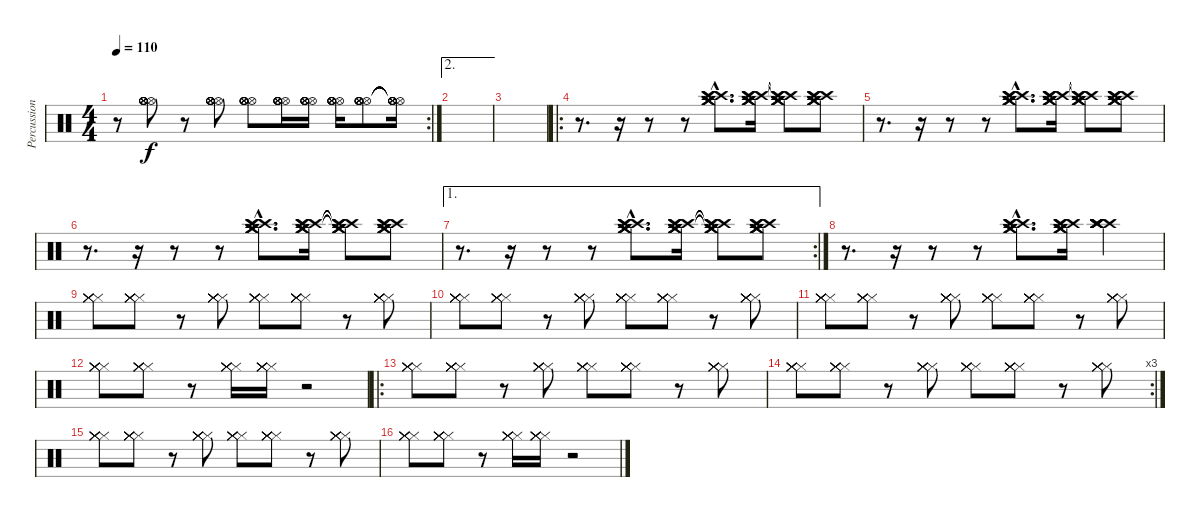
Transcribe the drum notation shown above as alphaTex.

\track ("Percussion 2" "Percussion") {instrument percussion}
\staff {score}
\articulation defaults
\rc 2
\ts (4 4)
\tempo 110
\clef neutral
\ks c
r.8{dy p} ("Hi-Hat (open)" "Hi-Hat (open)" "Hi-Hat (open)" "Hi-Hat (open)" "Hi-Hat (open)" "Hi-Hat (open)").8{dy f} r.8 ("Hi-Hat (open)" "Hi-Hat (open)" "Hi-Hat (open)" "Hi-Hat (open)" "Hi-Hat (open)" "Hi-Hat (open)").8 ("Hi-Hat (open)" "Hi-Hat (open)" "Hi-Hat (open)" "Hi-Hat (open)" "Hi-Hat (open)" "Hi-Hat (open)").8 ("Hi-Hat (open)" "Hi-Hat (open)" "Hi-Hat (open)" "Hi-Hat (open)" "Hi-Hat (open)" "Hi-Hat (open)").16 ("Hi-Hat (open)" "Hi-Hat (open)" "Hi-Hat (open)" "Hi-Hat (open)" "Hi-Hat (open)" "Hi-Hat (open)").16 ("Hi-Hat (open)" "Hi-Hat (open)" "Hi-Hat (open)" "Hi-Hat (open)" "Hi-Hat (open)" "Hi-Hat (open)").16 ("Hi-Hat (open)" "Hi-Hat (open)" "Hi-Hat (open)" "Hi-Hat (open)" "Hi-Hat (open)" "Hi-Hat (open)").8 ("Hi-Hat (open)"{t} "Hi-Hat (open)"{t} "Hi-Hat (open)"{t} "Hi-Hat (open)"{t} "Hi-Hat (open)"{t} "Hi-Hat (open)"{t}).16 |
\ae 2
|
|
\ro
r.8{d} r.16 r.8 r.8 ("Crash medium (hit)"{hac} "Crash medium (hit)"{hac} "Crash medium (hit)"{hac} "Crash high (hit)"{hac} "Crash high (hit)"{hac} "Crash high (hit)"{hac}).8{d} ("Crash medium (hit)" "Crash medium (hit)" "Crash medium (hit)" "Crash high (hit)" "Crash high (hit)" "Crash high (hit)").16 ("Crash medium (hit)"{t} "Crash medium (hit)"{t} "Crash medium (hit)"{t} "Crash high (hit)"{t} "Crash high (hit)"{t} "Crash high (hit)"{t}).8 ("Crash medium (hit)" "Crash medium (hit)" "Crash medium (hit)" "Crash high (hit)" "Crash high (hit)" "Crash high (hit)").8 |
r.8{d} r.16 r.8 r.8 ("Crash medium (hit)"{hac} "Crash medium (hit)"{hac} "Crash medium (hit)"{hac} "Crash high (hit)"{hac} "Crash high (hit)"{hac} "Crash high (hit)"{hac}).8{d} ("Crash medium (hit)" "Crash medium (hit)" "Crash medium (hit)" "Crash high (hit)" "Crash high (hit)" "Crash high (hit)").16 ("Crash medium (hit)"{t} "Crash medium (hit)"{t} "Crash medium (hit)"{t} "Crash high (hit)"{t} "Crash high (hit)"{t} "Crash high (hit)"{t}).8 ("Crash medium (hit)" "Crash medium (hit)" "Crash medium (hit)" "Crash high (hit)" "Crash high (hit)" "Crash high (hit)").8 |
r.8{d} r.16 r.8 r.8 ("Crash medium (hit)"{hac} "Crash medium (hit)"{hac} "Crash medium (hit)"{hac} "Crash high (hit)"{hac} "Crash high (hit)"{hac} "Crash high (hit)"{hac}).8{d} ("Crash medium (hit)" "Crash medium (hit)" "Crash medium (hit)" "Crash high (hit)" "Crash high (hit)" "Crash high (hit)").16 ("Crash medium (hit)"{t} "Crash medium (hit)"{t} "Crash medium (hit)"{t} "Crash high (hit)"{t} "Crash high (hit)"{t} "Crash high (hit)"{t}).8 ("Crash medium (hit)" "Crash medium (hit)" "Crash medium (hit)" "Crash high (hit)" "Crash high (hit)" "Crash high (hit)").8 |
\ae 1
\rc 2
r.8{d} r.16 r.8 r.8 ("Crash medium (hit)"{hac} "Crash medium (hit)"{hac} "Crash medium (hit)"{hac} "Crash high (hit)"{hac} "Crash high (hit)"{hac} "Crash high (hit)"{hac}).8{d} ("Crash medium (hit)" "Crash medium (hit)" "Crash medium (hit)" "Crash high (hit)" "Crash high (hit)" "Crash high (hit)").16 ("Crash medium (hit)"{t} "Crash medium (hit)"{t} "Crash medium (hit)"{t} "Crash high (hit)"{t} "Crash high (hit)"{t} "Crash high (hit)"{t}).8 ("Crash medium (hit)" "Crash medium (hit)" "Crash medium (hit)" "Crash high (hit)" "Crash high (hit)" "Crash high (hit)").8 |
r.8{d} r.16 r.8 r.8 ("Crash medium (hit)"{hac} "Crash medium (hit)"{hac} "Crash medium (hit)"{hac} "Crash high (hit)"{hac} "Crash high (hit)"{hac} "Crash high (hit)"{hac}).8{d} ("Crash medium (hit)" "Crash medium (hit)" "Crash medium (hit)" "Crash high (hit)" "Crash high (hit)" "Crash high (hit)").16 ("Crash high (hit)" "Crash high (hit)" "Crash high (hit)" "Crash high (hit)" "Crash high (hit)" "Crash high (hit)").4 |
("Hi-Hat (closed)" "Hi-Hat (closed)" "Hi-Hat (closed)" "Hi-Hat (closed)" "Hi-Hat (closed)" "Hi-Hat (closed)").8 ("Hi-Hat (closed)" "Hi-Hat (closed)" "Hi-Hat (closed)" "Hi-Hat (closed)" "Hi-Hat (closed)" "Hi-Hat (closed)").8 r.8 ("Hi-Hat (closed)" "Hi-Hat (closed)" "Hi-Hat (closed)" "Hi-Hat (closed)" "Hi-Hat (closed)" "Hi-Hat (closed)").8 ("Hi-Hat (closed)" "Hi-Hat (closed)" "Hi-Hat (closed)" "Hi-Hat (closed)" "Hi-Hat (closed)" "Hi-Hat (closed)").8 ("Hi-Hat (closed)" "Hi-Hat (closed)" "Hi-Hat (closed)" "Hi-Hat (closed)" "Hi-Hat (closed)" "Hi-Hat (closed)").8 r.8 ("Hi-Hat (closed)" "Hi-Hat (closed)" "Hi-Hat (closed)" "Hi-Hat (closed)" "Hi-Hat (closed)" "Hi-Hat (closed)").8 |
("Hi-Hat (closed)" "Hi-Hat (closed)" "Hi-Hat (closed)" "Hi-Hat (closed)" "Hi-Hat (closed)" "Hi-Hat (closed)").8 ("Hi-Hat (closed)" "Hi-Hat (closed)" "Hi-Hat (closed)" "Hi-Hat (closed)" "Hi-Hat (closed)" "Hi-Hat (closed)").8 r.8 ("Hi-Hat (closed)" "Hi-Hat (closed)" "Hi-Hat (closed)" "Hi-Hat (closed)" "Hi-Hat (closed)" "Hi-Hat (closed)").8 ("Hi-Hat (closed)" "Hi-Hat (closed)" "Hi-Hat (closed)" "Hi-Hat (closed)" "Hi-Hat (closed)" "Hi-Hat (closed)").8 ("Hi-Hat (closed)" "Hi-Hat (closed)" "Hi-Hat (closed)" "Hi-Hat (closed)" "Hi-Hat (closed)" "Hi-Hat (closed)").8 r.8 ("Hi-Hat (closed)" "Hi-Hat (closed)" "Hi-Hat (closed)" "Hi-Hat (closed)" "Hi-Hat (closed)" "Hi-Hat (closed)").8 |
("Hi-Hat (closed)" "Hi-Hat (closed)" "Hi-Hat (closed)" "Hi-Hat (closed)" "Hi-Hat (closed)" "Hi-Hat (closed)").8 ("Hi-Hat (closed)" "Hi-Hat (closed)" "Hi-Hat (closed)" "Hi-Hat (closed)" "Hi-Hat (closed)" "Hi-Hat (closed)").8 r.8 ("Hi-Hat (closed)" "Hi-Hat (closed)" "Hi-Hat (closed)" "Hi-Hat (closed)" "Hi-Hat (closed)" "Hi-Hat (closed)").8 ("Hi-Hat (closed)" "Hi-Hat (closed)" "Hi-Hat (closed)" "Hi-Hat (closed)" "Hi-Hat (closed)" "Hi-Hat (closed)").8 ("Hi-Hat (closed)" "Hi-Hat (closed)" "Hi-Hat (closed)" "Hi-Hat (closed)" "Hi-Hat (closed)" "Hi-Hat (closed)").8 r.8 ("Hi-Hat (closed)" "Hi-Hat (closed)" "Hi-Hat (closed)" "Hi-Hat (closed)" "Hi-Hat (closed)" "Hi-Hat (closed)").8 |
("Hi-Hat (closed)" "Hi-Hat (closed)" "Hi-Hat (closed)" "Hi-Hat (closed)" "Hi-Hat (closed)" "Hi-Hat (closed)").8 ("Hi-Hat (closed)" "Hi-Hat (closed)" "Hi-Hat (closed)" "Hi-Hat (closed)" "Hi-Hat (closed)" "Hi-Hat (closed)").8 r.8 ("Hi-Hat (closed)" "Hi-Hat (closed)" "Hi-Hat (closed)" "Hi-Hat (closed)" "Hi-Hat (closed)" "Hi-Hat (closed)").16 ("Hi-Hat (closed)" "Hi-Hat (closed)" "Hi-Hat (closed)" "Hi-Hat (closed)" "Hi-Hat (closed)" "Hi-Hat (closed)").16 r.2 |
\ro
("Hi-Hat (closed)" "Hi-Hat (closed)" "Hi-Hat (closed)" "Hi-Hat (closed)" "Hi-Hat (closed)" "Hi-Hat (closed)").8 ("Hi-Hat (closed)" "Hi-Hat (closed)" "Hi-Hat (closed)" "Hi-Hat (closed)" "Hi-Hat (closed)" "Hi-Hat (closed)").8 r.8 ("Hi-Hat (closed)" "Hi-Hat (closed)" "Hi-Hat (closed)" "Hi-Hat (closed)" "Hi-Hat (closed)" "Hi-Hat (closed)").8 ("Hi-Hat (closed)" "Hi-Hat (closed)" "Hi-Hat (closed)" "Hi-Hat (closed)" "Hi-Hat (closed)" "Hi-Hat (closed)").8 ("Hi-Hat (closed)" "Hi-Hat (closed)" "Hi-Hat (closed)" "Hi-Hat (closed)" "Hi-Hat (closed)" "Hi-Hat (closed)").8 r.8 ("Hi-Hat (closed)" "Hi-Hat (closed)" "Hi-Hat (closed)" "Hi-Hat (closed)" "Hi-Hat (closed)" "Hi-Hat (closed)").8 |
\rc 3
("Hi-Hat (closed)" "Hi-Hat (closed)" "Hi-Hat (closed)" "Hi-Hat (closed)" "Hi-Hat (closed)" "Hi-Hat (closed)").8 ("Hi-Hat (closed)" "Hi-Hat (closed)" "Hi-Hat (closed)" "Hi-Hat (closed)" "Hi-Hat (closed)" "Hi-Hat (closed)").8 r.8 ("Hi-Hat (closed)" "Hi-Hat (closed)" "Hi-Hat (closed)" "Hi-Hat (closed)" "Hi-Hat (closed)" "Hi-Hat (closed)").8 ("Hi-Hat (closed)" "Hi-Hat (closed)" "Hi-Hat (closed)" "Hi-Hat (closed)" "Hi-Hat (closed)" "Hi-Hat (closed)").8 ("Hi-Hat (closed)" "Hi-Hat (closed)" "Hi-Hat (closed)" "Hi-Hat (closed)" "Hi-Hat (closed)" "Hi-Hat (closed)").8 r.8 ("Hi-Hat (closed)" "Hi-Hat (closed)" "Hi-Hat (closed)" "Hi-Hat (closed)" "Hi-Hat (closed)" "Hi-Hat (closed)").8 |
("Hi-Hat (closed)" "Hi-Hat (closed)" "Hi-Hat (closed)" "Hi-Hat (closed)" "Hi-Hat (closed)" "Hi-Hat (closed)").8 ("Hi-Hat (closed)" "Hi-Hat (closed)" "Hi-Hat (closed)" "Hi-Hat (closed)" "Hi-Hat (closed)" "Hi-Hat (closed)").8 r.8 ("Hi-Hat (closed)" "Hi-Hat (closed)" "Hi-Hat (closed)" "Hi-Hat (closed)" "Hi-Hat (closed)" "Hi-Hat (closed)").8 ("Hi-Hat (closed)" "Hi-Hat (closed)" "Hi-Hat (closed)" "Hi-Hat (closed)" "Hi-Hat (closed)" "Hi-Hat (closed)").8 ("Hi-Hat (closed)" "Hi-Hat (closed)" "Hi-Hat (closed)" "Hi-Hat (closed)" "Hi-Hat (closed)" "Hi-Hat (closed)").8 r.8 ("Hi-Hat (closed)" "Hi-Hat (closed)" "Hi-Hat (closed)" "Hi-Hat (closed)" "Hi-Hat (closed)" "Hi-Hat (closed)").8 |
("Hi-Hat (closed)" "Hi-Hat (closed)" "Hi-Hat (closed)" "Hi-Hat (closed)" "Hi-Hat (closed)" "Hi-Hat (closed)").8 ("Hi-Hat (closed)" "Hi-Hat (closed)" "Hi-Hat (closed)" "Hi-Hat (closed)" "Hi-Hat (closed)" "Hi-Hat (closed)").8 r.8 ("Hi-Hat (closed)" "Hi-Hat (closed)" "Hi-Hat (closed)" "Hi-Hat (closed)" "Hi-Hat (closed)" "Hi-Hat (closed)").16 ("Hi-Hat (closed)" "Hi-Hat (closed)" "Hi-Hat (closed)" "Hi-Hat (closed)" "Hi-Hat (closed)" "Hi-Hat (closed)").16 r.2
